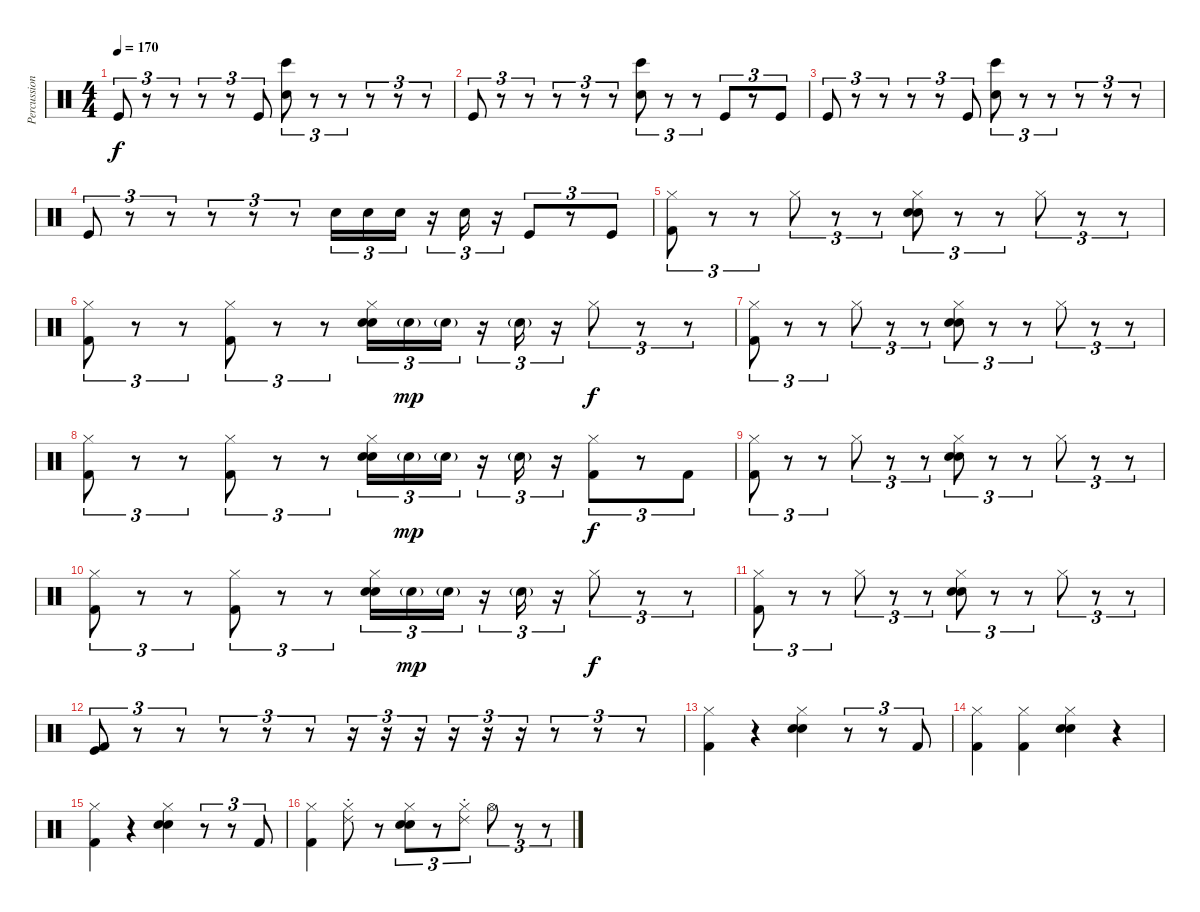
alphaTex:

\track ("Percussion" "Percussion") {instrument percussion}
\staff {score}
\articulation defaults
\ts (4 4)
\tempo 170
\clef neutral
\ks c "Kick (hit)".8{tu (3 2) dy f}
r.8{tu (3 2)} r.8{tu (3 2)} r.8{tu (3 2)} r.8{tu (3 2)} "Kick (hit)".8{tu (3 2)} ("Bongo High (hit)" "Hand Clap (hit)").8{tu (3 2)} r.8{tu (3 2)} r.8{tu (3 2)} r.8{tu (3 2)} r.8{tu (3 2)} r.8{tu (3 2)} |
"Kick (hit)".8{tu (3 2)} r.8{tu (3 2)} r.8{tu (3 2)} r.8{tu (3 2)} r.8{tu (3 2)} r.8{tu (3 2)} ("Bongo High (hit)" "Hand Clap (hit)").8{tu (3 2)} r.8{tu (3 2)} r.8{tu (3 2)} "Kick (hit)".8{tu (3 2)} r.8{tu (3 2)} "Kick (hit)".8{tu (3 2)} |
"Kick (hit)".8{tu (3 2)} r.8{tu (3 2)} r.8{tu (3 2)} r.8{tu (3 2)} r.8{tu (3 2)} "Kick (hit)".8{tu (3 2)} ("Bongo High (hit)" "Hand Clap (hit)").8{tu (3 2)} r.8{tu (3 2)} r.8{tu (3 2)} r.8{tu (3 2)} r.8{tu (3 2)} r.8{tu (3 2)} |
"Kick (hit)".8{tu (3 2)} r.8{tu (3 2)} r.8{tu (3 2)} r.8{tu (3 2)} r.8{tu (3 2)} r.8{tu (3 2)} "Electric Snare (hit)".16{tu (3 2)} "Electric Snare (hit)".16{tu (3 2)} "Electric Snare (hit)".16{tu (3 2)} r.16{tu (3 2)} "Electric Snare (hit)".16{tu (3 2)} r.16{tu (3 2)} "Kick (hit)".8{tu (3 2)} r.8{tu (3 2)} "Kick (hit)".8{tu (3 2)} |
("Hi-Hat (closed)" "Kick (hit) 2").8{tu (3 2)} r.8{tu (3 2)} r.8{tu (3 2)} "Hi-Hat (closed)".8{tu (3 2)} r.8{tu (3 2)} r.8{tu (3 2)} ("Hi-Hat (closed)" "Hand Clap (hit)" "Electric Snare (hit)").8{tu (3 2)} r.8{tu (3 2)} r.8{tu (3 2)} "Hi-Hat (closed)".8{tu (3 2)} r.8{tu (3 2)} r.8{tu (3 2)} |
("Hi-Hat (closed)" "Kick (hit) 2").8{tu (3 2)} r.8{tu (3 2)} r.8{tu (3 2)} ("Hi-Hat (closed)" "Kick (hit) 2").8{tu (3 2)} r.8{tu (3 2)} r.8{tu (3 2)} ("Hi-Hat (closed)" "Hand Clap (hit)" "Electric Snare (hit)").16{tu (3 2)} "Electric Snare (hit)"{g}.16{tu (3 2) dy mp} "Electric Snare (hit)"{g}.16{tu (3 2)} r.16{tu (3 2)} "Electric Snare (hit)"{g}.16{tu (3 2)} r.16{tu (3 2)} "Hi-Hat (closed)".8{tu (3 2) dy f} r.8{tu (3 2)} r.8{tu (3 2)} |
("Hi-Hat (closed)" "Kick (hit) 2").8{tu (3 2)} r.8{tu (3 2)} r.8{tu (3 2)} "Hi-Hat (closed)".8{tu (3 2)} r.8{tu (3 2)} r.8{tu (3 2)} ("Hi-Hat (closed)" "Hand Clap (hit)" "Electric Snare (hit)").8{tu (3 2)} r.8{tu (3 2)} r.8{tu (3 2)} "Hi-Hat (closed)".8{tu (3 2)} r.8{tu (3 2)} r.8{tu (3 2)} |
("Hi-Hat (closed)" "Kick (hit) 2").8{tu (3 2)} r.8{tu (3 2)} r.8{tu (3 2)} ("Hi-Hat (closed)" "Kick (hit) 2").8{tu (3 2)} r.8{tu (3 2)} r.8{tu (3 2)} ("Hi-Hat (closed)" "Hand Clap (hit)" "Electric Snare (hit)").16{tu (3 2)} "Electric Snare (hit)"{g}.16{tu (3 2) dy mp} "Electric Snare (hit)"{g}.16{tu (3 2)} r.16{tu (3 2)} "Electric Snare (hit)"{g}.16{tu (3 2)} r.16{tu (3 2)} ("Hi-Hat (closed)" "Kick (hit) 2").8{tu (3 2) dy f} r.8{tu (3 2)} "Kick (hit) 2".8{tu (3 2)} |
("Hi-Hat (closed)" "Kick (hit) 2").8{tu (3 2)} r.8{tu (3 2)} r.8{tu (3 2)} "Hi-Hat (closed)".8{tu (3 2)} r.8{tu (3 2)} r.8{tu (3 2)} ("Hi-Hat (closed)" "Hand Clap (hit)" "Electric Snare (hit)").8{tu (3 2)} r.8{tu (3 2)} r.8{tu (3 2)} "Hi-Hat (closed)".8{tu (3 2)} r.8{tu (3 2)} r.8{tu (3 2)} |
("Hi-Hat (closed)" "Kick (hit) 2").8{tu (3 2)} r.8{tu (3 2)} r.8{tu (3 2)} ("Hi-Hat (closed)" "Kick (hit) 2").8{tu (3 2)} r.8{tu (3 2)} r.8{tu (3 2)} ("Hi-Hat (closed)" "Hand Clap (hit)" "Electric Snare (hit)").16{tu (3 2)} "Electric Snare (hit)"{g}.16{tu (3 2) dy mp} "Electric Snare (hit)"{g}.16{tu (3 2)} r.16{tu (3 2)} "Electric Snare (hit)"{g}.16{tu (3 2)} r.16{tu (3 2)} "Hi-Hat (closed)".8{tu (3 2) dy f} r.8{tu (3 2)} r.8{tu (3 2)} |
("Hi-Hat (closed)" "Kick (hit) 2").8{tu (3 2)} r.8{tu (3 2)} r.8{tu (3 2)} "Hi-Hat (closed)".8{tu (3 2)} r.8{tu (3 2)} r.8{tu (3 2)} ("Hi-Hat (closed)" "Hand Clap (hit)" "Electric Snare (hit)").8{tu (3 2)} r.8{tu (3 2)} r.8{tu (3 2)} "Hi-Hat (closed)".8{tu (3 2)} r.8{tu (3 2)} r.8{tu (3 2)} |
("Kick (hit)" "Kick (hit) 2").8{tu (3 2)} r.8{tu (3 2)} r.8{tu (3 2)} r.8{tu (3 2)} r.8{tu (3 2)} r.8{tu (3 2)} r.16{tu (3 2)} r.16{tu (3 2)} r.16{tu (3 2)} r.16{tu (3 2)} r.16{tu (3 2)} r.16{tu (3 2)} r.8{tu (3 2)} r.8{tu (3 2)} r.8{tu (3 2)} |
("Hi-Hat (closed)" "Kick (hit) 2").4 r.4 ("Hi-Hat (closed)" "Hand Clap (hit)" "Electric Snare (hit)").4 r.8{tu (3 2)} r.8{tu (3 2)} "Kick (hit) 2".8{tu (3 2)} |
("Hi-Hat (closed)" "Kick (hit) 2").4 ("Hi-Hat (closed)" "Kick (hit) 2").4 ("Hi-Hat (closed)" "Hand Clap (hit)" "Electric Snare (hit)").4 r.4 |
("Hi-Hat (closed)" "Kick (hit) 2").4 r.4 ("Hi-Hat (closed)" "Hand Clap (hit)" "Electric Snare (hit)").4 r.8{tu (3 2)} r.8{tu (3 2)} "Kick (hit) 2".8{tu (3 2)} |
("Hi-Hat (closed)" "Kick (hit) 2").4 ("Hi-Hat (closed)" "Ride (choke) 2").8 r.8 ("Hi-Hat (closed)" "Hand Clap (hit)" "Electric Snare (hit)").8{tu (3 2)} r.8{tu (3 2)} ("Hi-Hat (closed)" "Ride (choke) 2").8{tu (3 2)} "Hi-Hat (open)".8{tu (3 2)} r.8{tu (3 2)} r.8{tu (3 2)}
